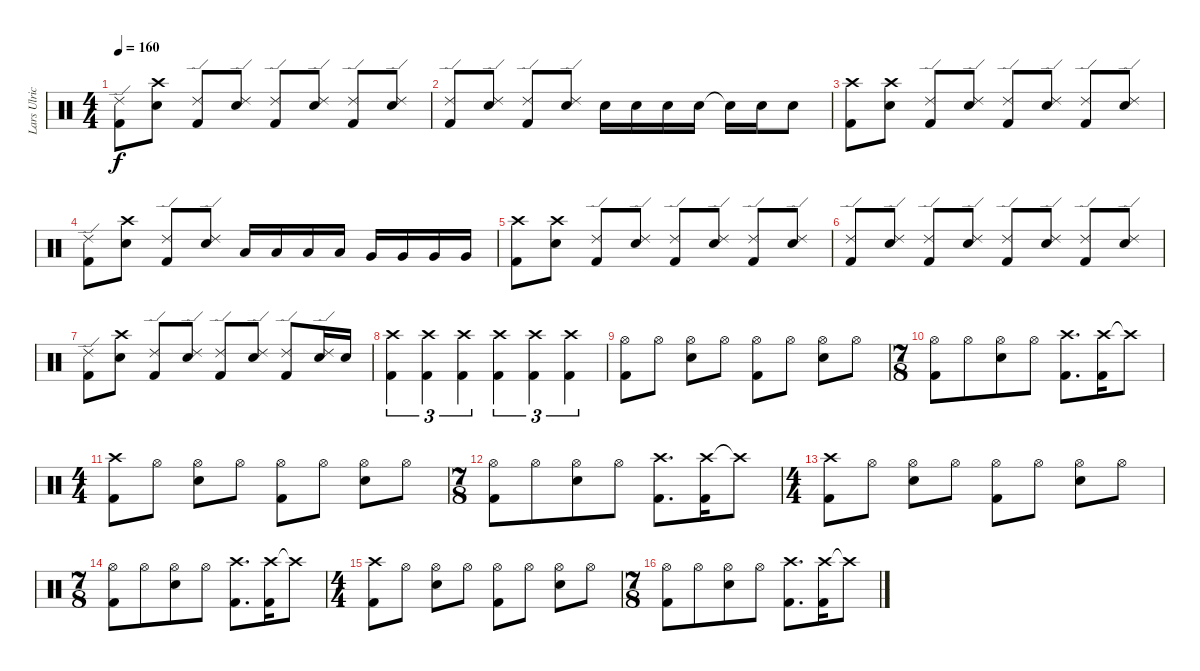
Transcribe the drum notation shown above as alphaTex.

\track ("Lars Ulrich" "Lars Ulric") {instrument percussion}
\staff {score}
\articulation defaults
\ts (4 4)
\tempo 160
\clef neutral
\ks c
("Ride (edge) 2" "Kick (hit) 2").8{dy f} ("Crash high (hit)" "Electric Snare (hit)").8 ("Ride (edge) 2" "Kick (hit) 2").8 ("Ride (edge) 2" "Electric Snare (hit)").8 ("Ride (edge) 2" "Kick (hit) 2").8 ("Ride (edge) 2" "Electric Snare (hit)").8 ("Ride (edge) 2" "Kick (hit) 2").8 ("Ride (edge) 2" "Electric Snare (hit)").8 |
("Ride (edge) 2" "Kick (hit) 2").8 ("Ride (edge) 2" "Electric Snare (hit)").8 ("Ride (edge) 2" "Kick (hit) 2").8 ("Ride (edge) 2" "Electric Snare (hit)").8 "Electric Snare (hit)".16 "Electric Snare (hit)".16 "Electric Snare (hit)".16 "Electric Snare (hit)".16 "Snare (hit)"{t}.16 "Electric Snare (hit)".16 "Electric Snare (hit)".8 |
("Crash high (hit)" "Kick (hit) 2").8 ("Crash high (hit)" "Electric Snare (hit)").8 ("Ride (edge) 2" "Kick (hit) 2").8 ("Ride (edge) 2" "Electric Snare (hit)").8 ("Ride (edge) 2" "Kick (hit) 2").8 ("Ride (edge) 2" "Electric Snare (hit)").8 ("Ride (edge) 2" "Kick (hit) 2").8 ("Ride (edge) 2" "Electric Snare (hit)").8 |
("Ride (edge) 2" "Kick (hit) 2").8 ("Crash high (hit)" "Electric Snare (hit)").8 ("Ride (edge) 2" "Kick (hit) 2").8 ("Ride (edge) 2" "Electric Snare (hit)").8 "Low Tom (hit)".16 "Low Tom (hit)".16 "Low Tom (hit)".16 "Low Tom (hit)".16 "Very Low Tom (hit)".16 "Very Low Tom (hit)".16 "Very Low Tom (hit)".16 "Very Low Tom (hit)".16 |
("Crash high (hit)" "Kick (hit) 2").8 ("Crash high (hit)" "Electric Snare (hit)").8 ("Ride (edge) 2" "Kick (hit) 2").8 ("Ride (edge) 2" "Electric Snare (hit)").8 ("Ride (edge) 2" "Kick (hit) 2").8 ("Ride (edge) 2" "Electric Snare (hit)").8 ("Ride (edge) 2" "Kick (hit) 2").8 ("Ride (edge) 2" "Electric Snare (hit)").8 |
("Ride (edge) 2" "Kick (hit) 2").8 ("Ride (edge) 2" "Electric Snare (hit)").8 ("Ride (edge) 2" "Kick (hit) 2").8 ("Ride (edge) 2" "Electric Snare (hit)").8 ("Ride (edge) 2" "Kick (hit) 2").8 ("Ride (edge) 2" "Electric Snare (hit)").8 ("Ride (edge) 2" "Kick (hit) 2").8 ("Ride (edge) 2" "Electric Snare (hit)").8 |
("Ride (edge) 2" "Kick (hit) 2").8 ("Crash high (hit)" "Electric Snare (hit)").8 ("Ride (edge) 2" "Kick (hit) 2").8 ("Ride (edge) 2" "Electric Snare (hit)").8 ("Ride (edge) 2" "Kick (hit) 2").8 ("Ride (edge) 2" "Electric Snare (hit)").8 ("Ride (edge) 2" "Kick (hit) 2").8 ("Ride (edge) 2" "Electric Snare (hit)").16 "Electric Snare (hit)".16 |
("Crash high (hit)" "Kick (hit) 2").4{tu (3 2)} ("Crash high (hit)" "Kick (hit) 2").4{tu (3 2)} ("Crash high (hit)" "Kick (hit) 2").4{tu (3 2)} ("Crash high (hit)" "Kick (hit) 2").4{tu (3 2)} ("Crash high (hit)" "Kick (hit) 2").4{tu (3 2)} ("Crash high (hit)" "Kick (hit) 2").4{tu (3 2)} |
("Hi-Hat (open)" "Kick (hit) 2").8 "Hi-Hat (open)".8 ("Hi-Hat (open)" "Electric Snare (hit)").8 "Hi-Hat (open)".8 ("Hi-Hat (open)" "Kick (hit) 2").8 "Hi-Hat (open)".8 ("Hi-Hat (open)" "Electric Snare (hit)").8 "Hi-Hat (open)".8 |
\ts (7 8)
("Hi-Hat (open)" "Kick (hit) 2").8 "Hi-Hat (open)".8 ("Hi-Hat (open)" "Electric Snare (hit)").8 "Hi-Hat (open)".8 ("Crash high (hit)" "Kick (hit) 2").8{d} ("Crash high (hit)" "Kick (hit) 2").16 "Crash high (hit)"{t}.8 |
\ts (4 4)
("Crash high (hit)" "Kick (hit) 2").8 "Hi-Hat (open)".8 ("Hi-Hat (open)" "Electric Snare (hit)").8 "Hi-Hat (open)".8 ("Hi-Hat (open)" "Kick (hit) 2").8 "Hi-Hat (open)".8 ("Hi-Hat (open)" "Electric Snare (hit)").8 "Hi-Hat (open)".8 |
\ts (7 8)
("Hi-Hat (open)" "Kick (hit) 2").8 "Hi-Hat (open)".8 ("Hi-Hat (open)" "Electric Snare (hit)").8 "Hi-Hat (open)".8 ("Crash high (hit)" "Kick (hit) 2").8{d} ("Crash high (hit)" "Kick (hit) 2").16 "Crash high (hit)"{t}.8 |
\ts (4 4)
("Crash high (hit)" "Kick (hit) 2").8 "Hi-Hat (open)".8 ("Hi-Hat (open)" "Electric Snare (hit)").8 "Hi-Hat (open)".8 ("Hi-Hat (open)" "Kick (hit) 2").8 "Hi-Hat (open)".8 ("Hi-Hat (open)" "Electric Snare (hit)").8 "Hi-Hat (open)".8 |
\ts (7 8)
("Hi-Hat (open)" "Kick (hit) 2").8 "Hi-Hat (open)".8 ("Hi-Hat (open)" "Electric Snare (hit)").8 "Hi-Hat (open)".8 ("Crash high (hit)" "Kick (hit) 2").8{d} ("Crash high (hit)" "Kick (hit) 2").16 "Crash high (hit)"{t}.8 |
\ts (4 4)
("Crash high (hit)" "Kick (hit) 2").8 "Hi-Hat (open)".8 ("Hi-Hat (open)" "Electric Snare (hit)").8 "Hi-Hat (open)".8 ("Hi-Hat (open)" "Kick (hit) 2").8 "Hi-Hat (open)".8 ("Hi-Hat (open)" "Electric Snare (hit)").8 "Hi-Hat (open)".8 |
\ts (7 8)
("Hi-Hat (open)" "Kick (hit) 2").8 "Hi-Hat (open)".8 ("Hi-Hat (open)" "Electric Snare (hit)").8 "Hi-Hat (open)".8 ("Crash high (hit)" "Kick (hit) 2").8{d} ("Crash high (hit)" "Kick (hit) 2").16 "Crash high (hit)"{t}.8
